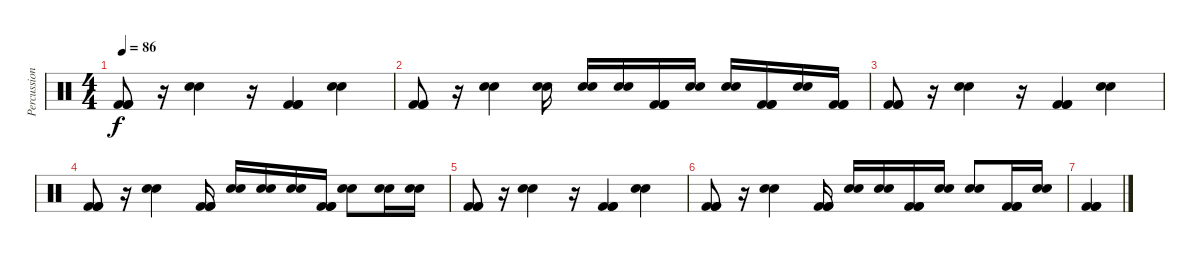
\track ("Percussions" "Percussion") {instrument percussion}
\staff {score}
\articulation defaults
\ts (4 4)
\tempo 86
\clef neutral
\ks c
("Kick (hit) 2" "Kick (hit) 2" "Kick (hit) 2").8{dy f} r.16 ("Snare (hit) 2" "Snare (hit) 2").4 r.16 ("Kick (hit) 2" "Kick (hit) 2" "Kick (hit) 2").4 ("Snare (hit) 2" "Snare (hit) 2").4 |
("Kick (hit) 2" "Kick (hit) 2" "Kick (hit) 2").8 r.16 ("Snare (hit) 2" "Snare (hit) 2").4 ("Snare (hit) 2" "Snare (hit) 2").16 ("Snare (hit) 2" "Snare (hit) 2").16 ("Snare (hit) 2" "Snare (hit) 2").16 ("Kick (hit) 2" "Kick (hit) 2" "Kick (hit) 2").16 ("Snare (hit) 2" "Snare (hit) 2").16 ("Snare (hit) 2" "Snare (hit) 2").16 ("Kick (hit) 2" "Kick (hit) 2" "Kick (hit) 2").16 ("Snare (hit) 2" "Snare (hit) 2").16 ("Kick (hit) 2" "Kick (hit) 2" "Kick (hit) 2").16 |
("Kick (hit) 2" "Kick (hit) 2" "Kick (hit) 2").8 r.16 ("Snare (hit) 2" "Snare (hit) 2").4 r.16 ("Kick (hit) 2" "Kick (hit) 2" "Kick (hit) 2").4 ("Snare (hit) 2" "Snare (hit) 2").4 |
("Kick (hit) 2" "Kick (hit) 2" "Kick (hit) 2").8 r.16 ("Snare (hit) 2" "Snare (hit) 2").4 ("Kick (hit) 2" "Kick (hit) 2" "Kick (hit) 2").16 ("Snare (hit) 2" "Snare (hit) 2").16 ("Snare (hit) 2" "Snare (hit) 2").16 ("Snare (hit) 2" "Snare (hit) 2").16 ("Kick (hit) 2" "Kick (hit) 2" "Kick (hit) 2").16 ("Snare (hit) 2" "Snare (hit) 2").8 ("Snare (hit) 2" "Snare (hit) 2").16 ("Snare (hit) 2" "Snare (hit) 2").16 |
("Kick (hit) 2" "Kick (hit) 2" "Kick (hit) 2").8 r.16 ("Snare (hit) 2" "Snare (hit) 2").4 r.16 ("Kick (hit) 2" "Kick (hit) 2" "Kick (hit) 2").4 ("Snare (hit) 2" "Snare (hit) 2").4 |
("Kick (hit) 2" "Kick (hit) 2" "Kick (hit) 2").8 r.16 ("Snare (hit) 2" "Snare (hit) 2").4 ("Kick (hit) 2" "Kick (hit) 2" "Kick (hit) 2").16 ("Snare (hit) 2" "Snare (hit) 2").16 ("Snare (hit) 2" "Snare (hit) 2").16 ("Kick (hit) 2" "Kick (hit) 2" "Kick (hit) 2").16 ("Snare (hit) 2" "Snare (hit) 2").16 ("Snare (hit) 2" "Snare (hit) 2").8 ("Kick (hit) 2" "Kick (hit) 2" "Kick (hit) 2").16 ("Snare (hit) 2" "Snare (hit) 2").16 |
("Kick (hit) 2" "Kick (hit) 2" "Kick (hit) 2").4
